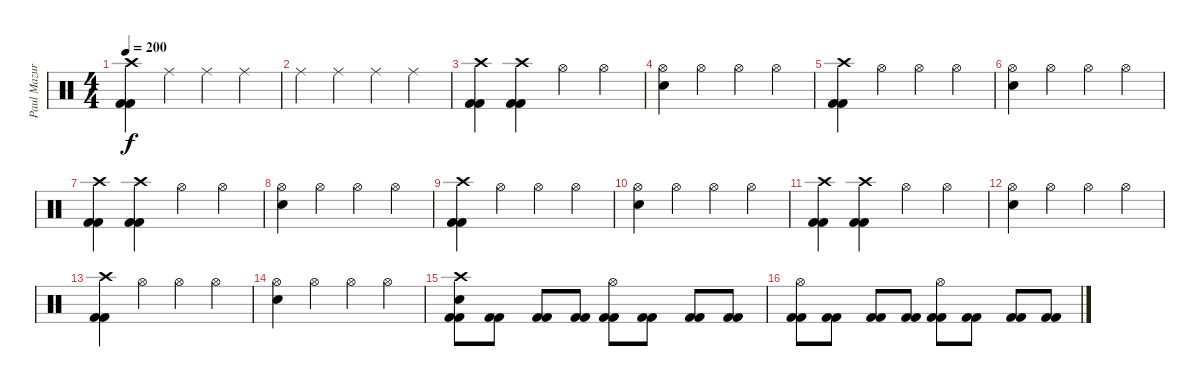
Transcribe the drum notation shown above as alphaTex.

\track ("Paul Mazurkiewicz" "Paul Mazur") {instrument percussion}
\staff {score}
\articulation defaults
\ts (4 4)
\tempo 200
\clef neutral
\ks c
("Crash high (hit)" "Kick (hit) 2" "Kick (hit) 2").4{dy f} "Ride (middle)".4 "Ride (middle)".4 "Ride (middle)".4 |
"Ride (middle)".4 "Ride (middle)".4 "Ride (middle)".4 "Ride (middle)".4 |
("Crash high (hit)" "Kick (hit) 2" "Kick (hit) 2").4 ("Crash high (hit)" "Kick (hit) 2" "Kick (hit) 2").4 "Hi-Hat (open)".4 "Hi-Hat (open)".4 |
("Hi-Hat (open)" "Electric Snare (hit)").4 "Hi-Hat (open)".4 "Hi-Hat (open)".4 "Hi-Hat (open)".4 |
("Crash high (hit)" "Kick (hit) 2" "Kick (hit) 2").4 "Hi-Hat (open)".4 "Hi-Hat (open)".4 "Hi-Hat (open)".4 |
("Hi-Hat (open)" "Electric Snare (hit)").4 "Hi-Hat (open)".4 "Hi-Hat (open)".4 "Hi-Hat (open)".4 |
("Crash high (hit)" "Kick (hit) 2" "Kick (hit) 2").4 ("Crash high (hit)" "Kick (hit) 2" "Kick (hit) 2").4 "Hi-Hat (open)".4 "Hi-Hat (open)".4 |
("Hi-Hat (open)" "Electric Snare (hit)").4 "Hi-Hat (open)".4 "Hi-Hat (open)".4 "Hi-Hat (open)".4 |
("Crash high (hit)" "Kick (hit) 2" "Kick (hit) 2").4 "Hi-Hat (open)".4 "Hi-Hat (open)".4 "Hi-Hat (open)".4 |
("Hi-Hat (open)" "Electric Snare (hit)").4 "Hi-Hat (open)".4 "Hi-Hat (open)".4 "Hi-Hat (open)".4 |
("Crash high (hit)" "Kick (hit) 2" "Kick (hit) 2").4 ("Crash high (hit)" "Kick (hit) 2" "Kick (hit) 2").4 "Hi-Hat (open)".4 "Hi-Hat (open)".4 |
("Hi-Hat (open)" "Electric Snare (hit)").4 "Hi-Hat (open)".4 "Hi-Hat (open)".4 "Hi-Hat (open)".4 |
("Crash high (hit)" "Kick (hit) 2" "Kick (hit) 2").4 "Hi-Hat (open)".4 "Hi-Hat (open)".4 "Hi-Hat (open)".4 |
("Hi-Hat (open)" "Electric Snare (hit)").4 "Hi-Hat (open)".4 "Hi-Hat (open)".4 "Hi-Hat (open)".4 |
("Crash high (hit)" "Electric Snare (hit)" "Kick (hit) 2" "Kick (hit) 2").8 ("Kick (hit) 2" "Kick (hit) 2").8 ("Kick (hit) 2" "Kick (hit) 2").8 ("Kick (hit) 2" "Kick (hit) 2").8 ("Hi-Hat (open)" "Kick (hit) 2" "Kick (hit) 2").8 ("Kick (hit) 2" "Kick (hit) 2").8 ("Kick (hit) 2" "Kick (hit) 2").8 ("Kick (hit) 2" "Kick (hit) 2").8 |
("Hi-Hat (open)" "Kick (hit) 2" "Kick (hit) 2").8 ("Kick (hit) 2" "Kick (hit) 2").8 ("Kick (hit) 2" "Kick (hit) 2").8 ("Kick (hit) 2" "Kick (hit) 2").8 ("Hi-Hat (open)" "Kick (hit) 2" "Kick (hit) 2").8 ("Kick (hit) 2" "Kick (hit) 2").8 ("Kick (hit) 2" "Kick (hit) 2").8 ("Kick (hit) 2" "Kick (hit) 2").8
